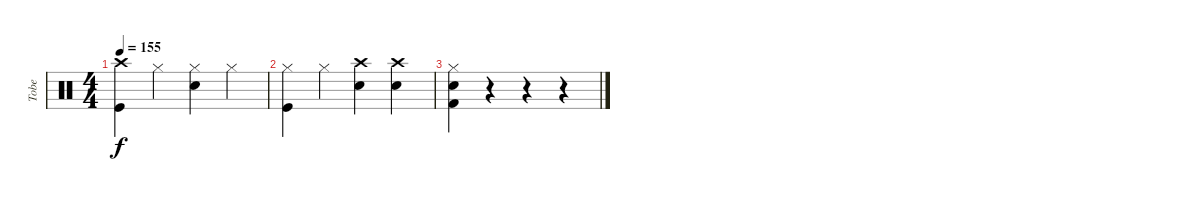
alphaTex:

\track ("Tobe" "Tobe") {instrument percussion}
\staff {score}
\articulation defaults
\ts (4 4)
\tempo 155
\clef neutral
\ks c
("Crash high (hit)" "Kick (hit)").4{dy f} "Hi-Hat (closed)".4 ("Hi-Hat (closed)" "Electric Snare (hit)").4 "Hi-Hat (closed)".4 |
("Hi-Hat (closed)" "Kick (hit)").4 "Hi-Hat (closed)".4 ("Crash high (hit)" "Electric Snare (hit)").4 ("Crash high (hit)" "Electric Snare (hit)").4 |
("Hi-Hat (closed)" "Electric Snare (hit)" "Kick (hit) 2").4 r.4 r.4 r.4
